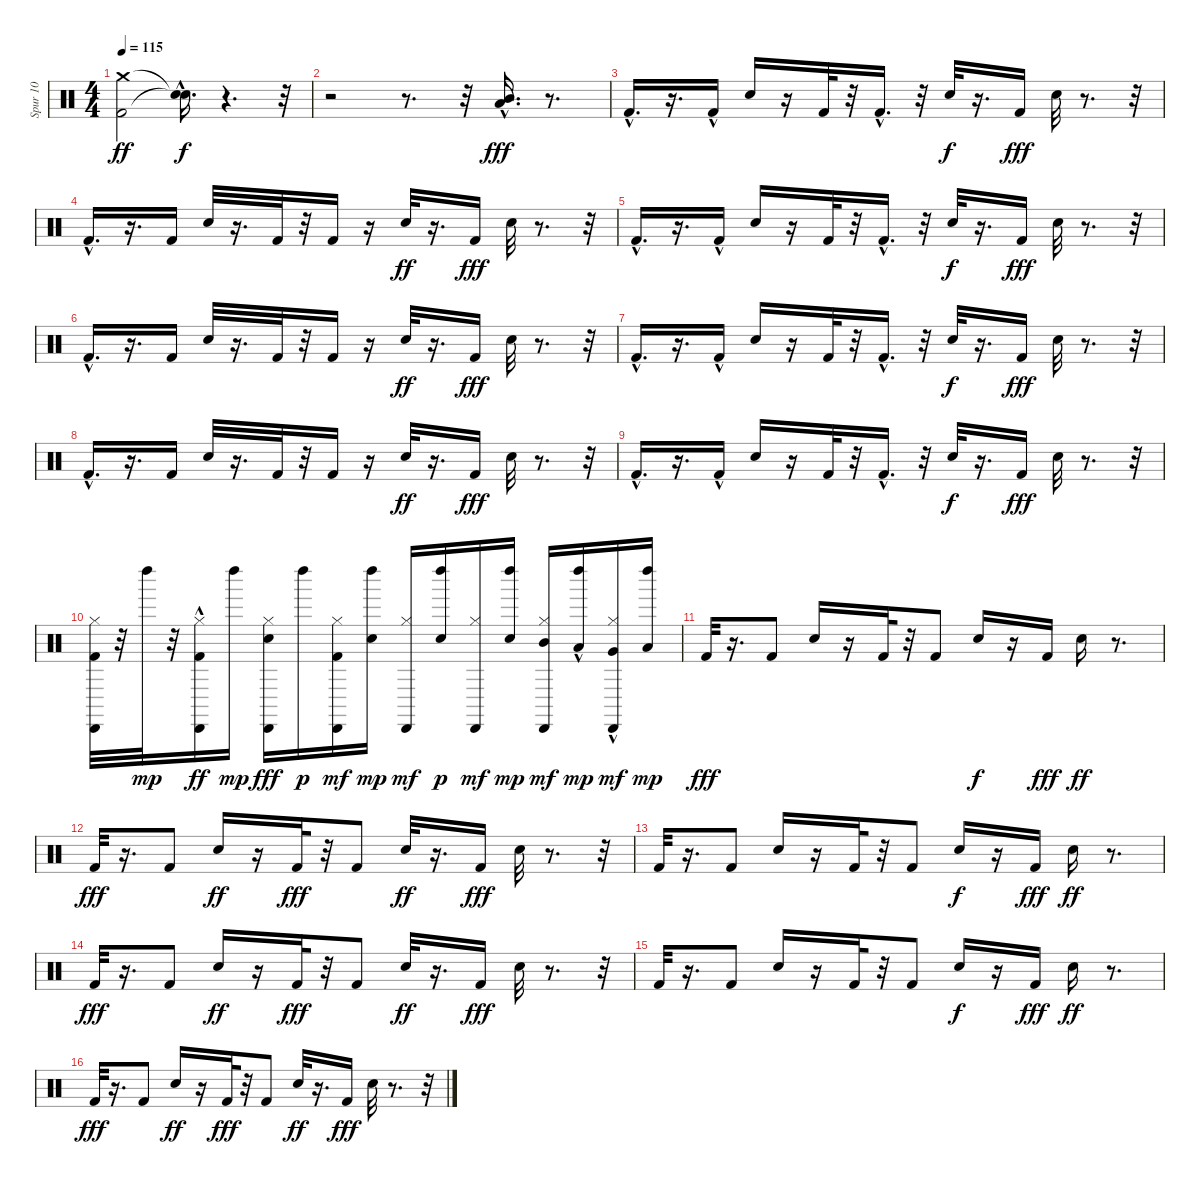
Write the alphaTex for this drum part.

\track ("Spur 10" "Spur 10") {instrument percussion}
\staff {score}
\articulation defaults
\ts (4 4)
\tempo 115
\clef neutral
\ks c
("Kick (hit) 2" "Crash medium (hit)").2{dy ff volume 14 balance 8} ("Snare (hit)"{hac t} "Snare (hit)"{t}).16{d dy f} r.4{d} r.32 |
r.2 r.8{d} r.32 ("Low Tom (hit)" "Mid Tom (hit)"{hac}).16{d dy fff} r.8{d} |
"Kick (hit) 2"{hac}.16{d volume 14} r.16{d} "Kick (hit) 2"{hac}.16 "Metronome (bell)".16 r.16 "Kick (hit) 2".32 r.32 "Kick (hit) 2"{hac}.16{d} r.32 "Metronome (bell)".32{dy f} r.16{d} "Kick (hit) 2".16{dy fff} "Metronome (bell)".32 r.8{d} r.32 |
"Kick (hit) 2"{hac}.16{d} r.16{d} "Kick (hit) 2".16 "Metronome (bell)".32 r.16{d} "Kick (hit) 2".32 r.32 "Kick (hit) 2".16 r.16 "Metronome (bell)".32{dy ff} r.16{d} "Kick (hit) 2".16{dy fff} "Metronome (bell)".32 r.8{d} r.32 |
"Kick (hit) 2"{hac}.16{d} r.16{d} "Kick (hit) 2"{hac}.16 "Metronome (bell)".16 r.16 "Kick (hit) 2".32 r.32 "Kick (hit) 2"{hac}.16{d} r.32 "Metronome (bell)".32{dy f} r.16{d} "Kick (hit) 2".16{dy fff} "Metronome (bell)".32 r.8{d} r.32 |
"Kick (hit) 2"{hac}.16{d} r.16{d} "Kick (hit) 2".16 "Metronome (bell)".32 r.16{d} "Kick (hit) 2".32 r.32 "Kick (hit) 2".16 r.16 "Metronome (bell)".32{dy ff} r.16{d} "Kick (hit) 2".16{dy fff} "Metronome (bell)".32 r.8{d} r.32 |
"Kick (hit) 2"{hac}.16{d} r.16{d} "Kick (hit) 2"{hac}.16 "Metronome (bell)".16 r.16 "Kick (hit) 2".32 r.32 "Kick (hit) 2"{hac}.16{d} r.32 "Metronome (bell)".32{dy f} r.16{d} "Kick (hit) 2".16{dy fff} "Metronome (bell)".32 r.8{d} r.32 |
"Kick (hit) 2"{hac}.16{d} r.16{d} "Kick (hit) 2".16 "Metronome (bell)".32 r.16{d} "Kick (hit) 2".32 r.32 "Kick (hit) 2".16 r.16 "Metronome (bell)".32{dy ff} r.16{d} "Kick (hit) 2".16{dy fff} "Metronome (bell)".32 r.8{d} r.32 |
"Kick (hit) 2"{hac}.16{d} r.16{d} "Kick (hit) 2"{hac}.16 "Metronome (bell)".16 r.16 "Kick (hit) 2".32 r.32 "Kick (hit) 2"{hac}.16{d} r.32 "Metronome (bell)".32{dy f} r.16{d} "Kick (hit) 2".16{dy fff} "Metronome (bell)".32 r.8{d} r.32 |
("Cabasa (hit)" "Hi-Hat (closed)" "Kick (hit) 2").32{volume 14} r.32 "Left Maraca (hit)".32{dy mp} r.32 ("Cabasa (hit)" "Hi-Hat (closed)" "Kick (hit) 2"{hac}).16{dy ff} "Left Maraca (hit)".16{dy mp} ("Cabasa (hit)" "Metronome (bell)" "Hi-Hat (closed)").16{dy fff} "Left Maraca (hit)".16{dy p} ("Kick (hit) 2" "Hi-Hat (closed)" "Cabasa (hit)").16{dy mf} ("Metronome (bell)" "Left Maraca (hit)").16{dy mp} ("Hi-Hat (closed)" "Cabasa (hit)").16{dy mf} ("Metronome (bell)" "Left Maraca (hit)").16{dy p} ("Hi-Hat (closed)" "Cabasa (hit)").16{dy mf} ("Metronome (bell)" "Left Maraca (hit)").16{dy mp} ("Mid Tom (hit)" "Hi-Hat (closed)" "Cabasa (hit)").16{dy mf} ("Low Tom (hit)"{hac} "Left Maraca (hit)").16{dy mp} ("Hi-Hat (closed)" "Very Low Tom (hit)"{hac} "Cabasa (hit)").16{dy mf} ("Low Floor Tom (hit)" "Left Maraca (hit)").16{dy mp} |
"Kick (hit) 2".32{dy fff} r.16{d} "Kick (hit) 2".8 "Metronome (bell)".16 r.16 "Kick (hit) 2".32 r.32 "Kick (hit) 2".8 "Metronome (bell)".16{dy f} r.16 "Kick (hit) 2".16{dy fff} "Metronome (bell)".16{dy ff} r.8{d} |
"Kick (hit) 2".32{dy fff} r.16{d} "Kick (hit) 2".8 "Metronome (bell)".16{dy ff} r.16 "Kick (hit) 2".32{dy fff} r.32 "Kick (hit) 2".8 "Metronome (bell)".32{dy ff} r.16{d} "Kick (hit) 2".16{dy fff} "Metronome (bell)".32 r.8{d} r.32 |
"Kick (hit) 2".32 r.16{d} "Kick (hit) 2".8 "Metronome (bell)".16 r.16 "Kick (hit) 2".32 r.32 "Kick (hit) 2".8 "Metronome (bell)".16{dy f} r.16 "Kick (hit) 2".16{dy fff} "Metronome (bell)".16{dy ff} r.8{d} |
"Kick (hit) 2".32{dy fff} r.16{d} "Kick (hit) 2".8 "Metronome (bell)".16{dy ff} r.16 "Kick (hit) 2".32{dy fff} r.32 "Kick (hit) 2".8 "Metronome (bell)".32{dy ff} r.16{d} "Kick (hit) 2".16{dy fff} "Metronome (bell)".32 r.8{d} r.32 |
"Kick (hit) 2".32 r.16{d} "Kick (hit) 2".8 "Metronome (bell)".16 r.16 "Kick (hit) 2".32 r.32 "Kick (hit) 2".8 "Metronome (bell)".16{dy f} r.16 "Kick (hit) 2".16{dy fff} "Metronome (bell)".16{dy ff} r.8{d} |
"Kick (hit) 2".32{dy fff} r.16{d} "Kick (hit) 2".8 "Metronome (bell)".16{dy ff} r.16 "Kick (hit) 2".32{dy fff} r.32 "Kick (hit) 2".8 "Metronome (bell)".32{dy ff} r.16{d} "Kick (hit) 2".16{dy fff} "Metronome (bell)".32 r.8{d} r.32
